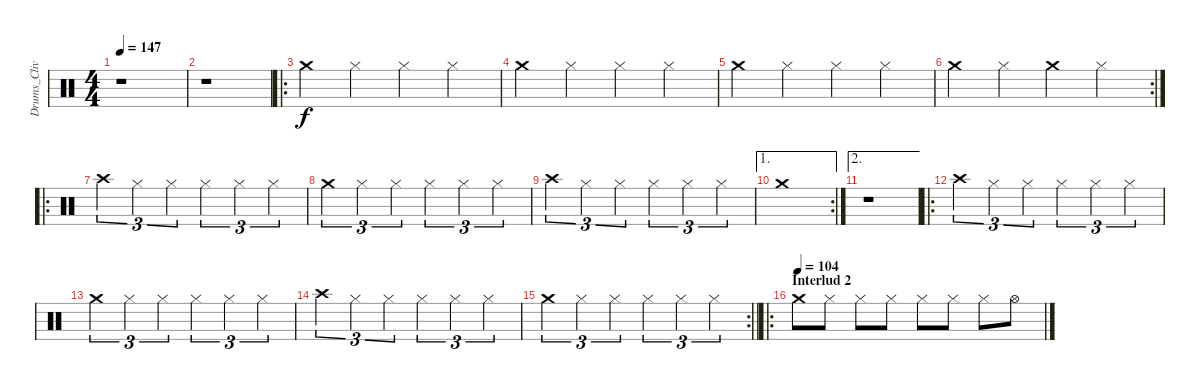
\track ("Drums_CliveBurr" "Drums_Cliv") {instrument percussion}
\staff {score}
\articulation defaults
\ts (4 4)
\tempo 147
\clef neutral
\ks c
r.1{dy f} |
r.1 |
\ro "Crash medium (hit)".4 "Hi-Hat (closed)".4 "Hi-Hat (closed)".4 "Hi-Hat (closed)".4
|
"Crash medium (hit)".4 "Hi-Hat (closed)".4 "Hi-Hat (closed)".4 "Hi-Hat (closed)".4 |
"Crash medium (hit)".4 "Hi-Hat (closed)".4 "Hi-Hat (closed)".4 "Hi-Hat (closed)".4 |
\rc 2 "Crash medium (hit)".4 "Hi-Hat (closed)".4 "Crash medium (hit)".4 "Hi-Hat (closed)".4
|
\ro "Crash high (hit)".4{tu (3 2)} "Hi-Hat (closed)".4{tu (3 2)} "Hi-Hat (closed)".4{tu (3 2)} "Hi-Hat (closed)".4{tu (3 2)} "Hi-Hat (closed)".4{tu (3 2)} "Hi-Hat (closed)".4{tu (3 2)}
|
"Crash medium (hit)".4{tu (3 2)} "Hi-Hat (closed)".4{tu (3 2)} "Hi-Hat (closed)".4{tu (3 2)} "Hi-Hat (closed)".4{tu (3 2)} "Hi-Hat (closed)".4{tu (3 2)} "Hi-Hat (closed)".4{tu (3 2)} |
"Crash high (hit)".4{tu (3 2)} "Hi-Hat (closed)".4{tu (3 2)} "Hi-Hat (closed)".4{tu (3 2)} "Hi-Hat (closed)".4{tu (3 2)} "Hi-Hat (closed)".4{tu (3 2)} "Hi-Hat (closed)".4{tu (3 2)} |
\ae 1
\rc 2 "Crash medium (hit)".1
|
\ae 2
r.1 |
\ro "Crash high (hit)".4{tu (3 2)} "Hi-Hat (closed)".4{tu (3 2)} "Hi-Hat (closed)".4{tu (3 2)} "Hi-Hat (closed)".4{tu (3 2)} "Hi-Hat (closed)".4{tu (3 2)} "Hi-Hat (closed)".4{tu (3 2)}
|
"Crash medium (hit)".4{tu (3 2)} "Hi-Hat (closed)".4{tu (3 2)} "Hi-Hat (closed)".4{tu (3 2)} "Hi-Hat (closed)".4{tu (3 2)} "Hi-Hat (closed)".4{tu (3 2)} "Hi-Hat (closed)".4{tu (3 2)} |
"Crash high (hit)".4{tu (3 2)} "Hi-Hat (closed)".4{tu (3 2)} "Hi-Hat (closed)".4{tu (3 2)} "Hi-Hat (closed)".4{tu (3 2)} "Hi-Hat (closed)".4{tu (3 2)} "Hi-Hat (closed)".4{tu (3 2)} |
\rc 2
\barLineRight lightlight "Crash medium (hit)".4{tu (3 2)} "Hi-Hat (closed)".4{tu (3 2)} "Hi-Hat (closed)".4{tu (3 2)} "Hi-Hat (closed)".4{tu (3 2)} "Hi-Hat (closed)".4{tu (3 2)} "Hi-Hat (closed)".4{tu (3 2)}
|
\ro
\section ("" "Interlud 2")
\tempo (104)
"Crash medium (hit)".8 "Hi-Hat (closed)".8 "Hi-Hat (closed)".8 "Hi-Hat (closed)".8 "Hi-Hat (closed)".8 "Hi-Hat (closed)".8 "Hi-Hat (closed)".8 "Hi-Hat (open)".8
